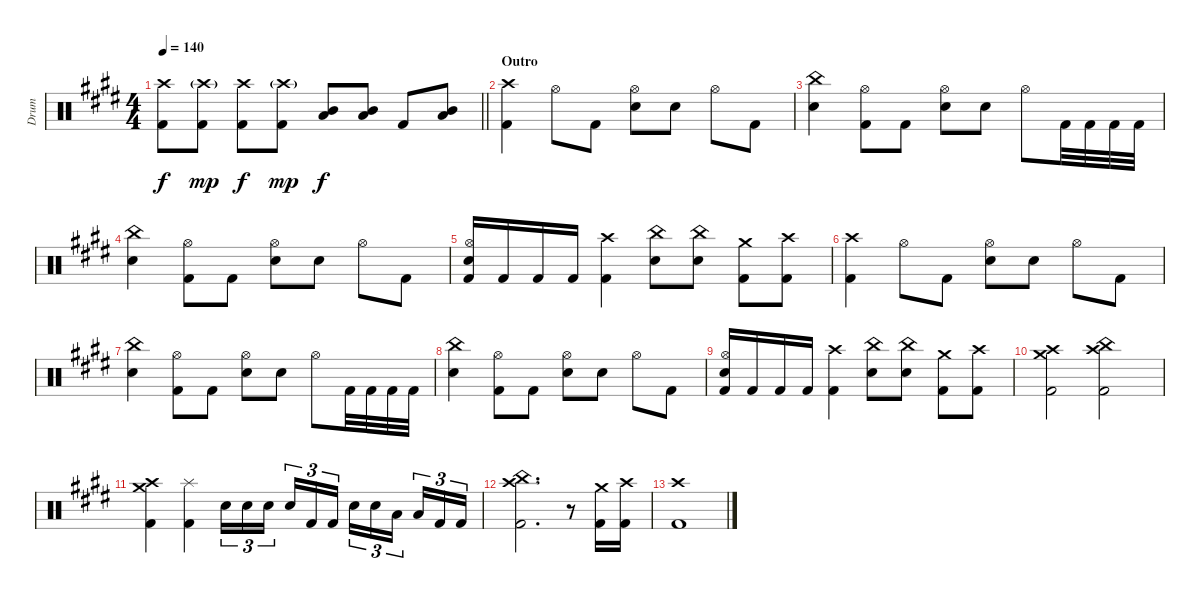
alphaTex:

\track ("Drum" "Drum") {instrument percussion}
\staff {score}
\articulation defaults
\ts (4 4)
\tempo 140
\clef neutral
\barLineRight lightlight
\ks c#minor
("Crash high (hit)" "Kick (hit) 2").8{dy f} ("Crash high (hit)"{g} "Kick (hit) 2").8{dy mp} ("Crash high (hit)" "Kick (hit) 2").8{dy f} ("Crash high (hit)"{g} "Kick (hit) 2").8{dy mp} ("Low Tom (hit)" "Mid Tom (hit)").8{dy f} ("Low Tom (hit)" "Mid Tom (hit)").8 "Kick (hit) 2".8 ("Low Tom (hit)" "Mid Tom (hit)").8 |
\section ("" "Outro")
("Crash high (hit)" "Kick (hit) 2").4 "Hi-Hat (open)".8 "Kick (hit) 2".8 ("Hi-Hat (open)" "Snare (hit) 2").8 "Snare (hit) 2".8 "Hi-Hat (open)".8 "Kick (hit) 2".8 |
("China (hit)" "Snare (hit) 2").4 ("Hi-Hat (open)" "Kick (hit) 2").8 "Kick (hit) 2".8 ("Hi-Hat (open)" "Snare (hit) 2").8 "Snare (hit) 2".8 "Hi-Hat (open)".8 "Kick (hit) 2".32 "Kick (hit) 2".32 "Kick (hit) 2".32 "Kick (hit) 2".32 |
("China (hit)" "Snare (hit) 2").4 ("Hi-Hat (open)" "Kick (hit) 2").8 "Kick (hit) 2".8 ("Hi-Hat (open)" "Snare (hit) 2").8 "Snare (hit) 2".8 "Hi-Hat (open)".8 "Kick (hit) 2".8 |
("Hi-Hat (open)" "Snare (hit) 2" "Kick (hit) 2").16 "Kick (hit) 2".16 "Kick (hit) 2".16 "Kick (hit) 2".16 ("Crash high (hit)" "Kick (hit) 2").4 ("China (hit)" "Snare (hit) 2").8 ("China (hit)" "Snare (hit) 2").8 ("Crash medium (hit)" "Kick (hit) 2").8 ("Crash high (hit)" "Kick (hit) 2").8 |
("Crash high (hit)" "Kick (hit) 2").4 "Hi-Hat (open)".8 "Kick (hit) 2".8 ("Hi-Hat (open)" "Snare (hit) 2").8 "Snare (hit) 2".8 "Hi-Hat (open)".8 "Kick (hit) 2".8 |
("China (hit)" "Snare (hit) 2").4 ("Hi-Hat (open)" "Kick (hit) 2").8 "Kick (hit) 2".8 ("Hi-Hat (open)" "Snare (hit) 2").8 "Snare (hit) 2".8 "Hi-Hat (open)".8 "Kick (hit) 2".32 "Kick (hit) 2".32 "Kick (hit) 2".32 "Kick (hit) 2".32 |
("China (hit)" "Snare (hit) 2").4 ("Hi-Hat (open)" "Kick (hit) 2").8 "Kick (hit) 2".8 ("Hi-Hat (open)" "Snare (hit) 2").8 "Snare (hit) 2".8 "Hi-Hat (open)".8 "Kick (hit) 2".8 |
("Hi-Hat (open)" "Snare (hit) 2" "Kick (hit) 2").16 "Kick (hit) 2".16 "Kick (hit) 2".16 "Kick (hit) 2".16 ("Crash high (hit)" "Kick (hit) 2").4 ("China (hit)" "Snare (hit) 2").8 ("China (hit)" "Snare (hit) 2").8 ("Crash medium (hit)" "Kick (hit) 2").8 ("Crash high (hit)" "Kick (hit) 2").8 |
("Crash medium (hit)" "Crash high (hit)" "Kick (hit) 2").2 ("China (hit)" "Crash high (hit)" "Kick (hit) 2").2 |
("Crash medium (hit)" "Crash high (hit)" "Kick (hit) 2").4 ("Splash (hit)" "Kick (hit) 2").4 "Snare (hit) 2".16{tu (3 2)} "Snare (hit) 2".16{tu (3 2)} "Snare (hit) 2".16{tu (3 2) beam splitsecondary} "Snare (hit) 2".16{tu (3 2)} "Kick (hit) 2".16{tu (3 2)} "Kick (hit) 2".16{tu (3 2)} "Snare (hit) 2".16{tu (3 2)} "Snare (hit) 2".16{tu (3 2)} "Low Tom (hit)".16{tu (3 2) beam splitsecondary} "Low Tom (hit)".16{tu (3 2)} "Kick (hit) 2".16{tu (3 2)} "Kick (hit) 2".16{tu (3 2)} |
("China (hit)" "Crash high (hit)" "Kick (hit) 2").2{d} r.8 ("Crash medium (hit)" "Kick (hit) 2").16 ("Crash high (hit)" "Kick (hit) 2").16 |
("Crash high (hit)" "Kick (hit) 2").1
